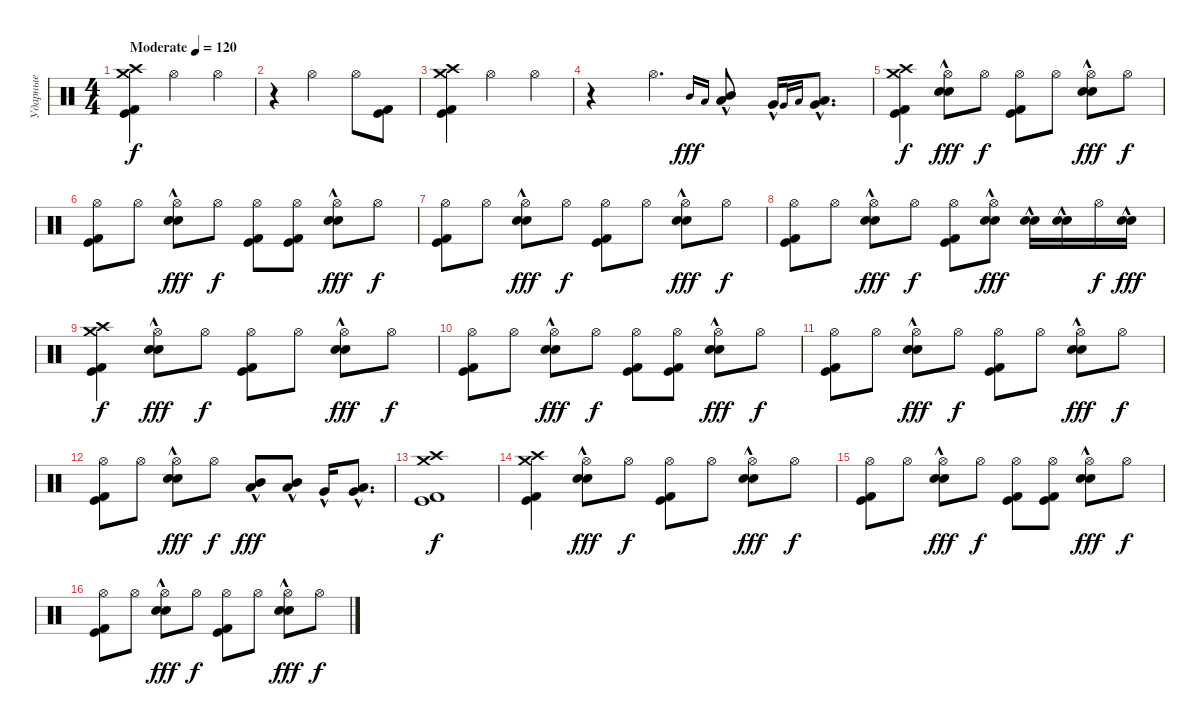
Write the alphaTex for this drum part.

\track ("Ударные" "Ударные") {instrument percussion}
\staff {score}
\articulation defaults
\ts (4 4)
\tempo (120 "Moderate")
\clef neutral
\ks c
("Crash high (hit)" "Kick (hit)" "Kick (hit) 2" "Crash medium (hit)").4{dy f} "Hi-Hat (open)".2 "Hi-Hat (open)".4 |
r.4 "Hi-Hat (open)".2 "Hi-Hat (open)".8 ("Kick (hit)" "Kick (hit) 2").8 |
("Crash high (hit)" "Kick (hit)" "Kick (hit) 2" "Crash medium (hit)").4 "Hi-Hat (open)".2 "Hi-Hat (open)".4 |
r.4 "Hi-Hat (open)".4{d} "Mid Tom (hit)".16{gr onbeat dy fff} "Low Tom (hit)".16{gr onbeat} ("Mid Tom (hit)"{hac} "Low Tom (hit)"{hac}).8 "Very Low Tom (hit)"{hac}.16 "Very Low Tom (hit)".16{gr onbeat} "Low Floor Tom (hit)".16{gr onbeat} ("Very Low Tom (hit)"{hac} "Low Floor Tom (hit)"{hac}).8{d} |
("Crash high (hit)" "Kick (hit)" "Kick (hit) 2" "Crash medium (hit)").4{dy f} ("Hi-Hat (open)" "Snare (hit) 2"{hac} "Electric Snare (hit)"{hac}).8{dy fff} "Hi-Hat (open)".8{dy f} ("Hi-Hat (open)" "Kick (hit)" "Kick (hit) 2").8 "Hi-Hat (open)".8 ("Hi-Hat (open)" "Snare (hit) 2"{hac} "Electric Snare (hit)"{hac}).8{dy fff} "Hi-Hat (open)".8{dy f} |
("Hi-Hat (open)" "Kick (hit)" "Kick (hit) 2").8 "Hi-Hat (open)".8 ("Hi-Hat (open)" "Snare (hit) 2"{hac} "Electric Snare (hit)"{hac}).8{dy fff} "Hi-Hat (open)".8{dy f} ("Hi-Hat (open)" "Kick (hit)" "Kick (hit) 2").8 ("Hi-Hat (open)" "Kick (hit)" "Kick (hit) 2").8 ("Hi-Hat (open)" "Snare (hit) 2"{hac} "Electric Snare (hit)"{hac}).8{dy fff} "Hi-Hat (open)".8{dy f} |
("Hi-Hat (open)" "Kick (hit)" "Kick (hit) 2").8 "Hi-Hat (open)".8 ("Hi-Hat (open)" "Snare (hit) 2"{hac} "Electric Snare (hit)"{hac}).8{dy fff} "Hi-Hat (open)".8{dy f} ("Hi-Hat (open)" "Kick (hit)" "Kick (hit) 2").8 "Hi-Hat (open)".8 ("Hi-Hat (open)" "Snare (hit) 2"{hac} "Electric Snare (hit)"{hac}).8{dy fff} "Hi-Hat (open)".8{dy f} |
("Hi-Hat (open)" "Kick (hit)" "Kick (hit) 2").8 "Hi-Hat (open)".8 ("Hi-Hat (open)" "Snare (hit) 2"{hac} "Electric Snare (hit)"{hac}).8{dy fff} "Hi-Hat (open)".8{dy f} ("Hi-Hat (open)" "Kick (hit)" "Kick (hit) 2").8 ("Hi-Hat (open)" "Snare (hit) 2"{hac} "Electric Snare (hit)"{hac}).8{dy fff} ("Snare (hit) 2"{hac} "Electric Snare (hit)"{hac}).16 ("Snare (hit) 2"{hac} "Electric Snare (hit)"{hac}).16 "Hi-Hat (open)".16{dy f} ("Snare (hit) 2"{hac} "Electric Snare (hit)"{hac}).16{dy fff} |
("Crash high (hit)" "Kick (hit)" "Kick (hit) 2" "Crash medium (hit)").4{dy f} ("Hi-Hat (open)" "Snare (hit) 2"{hac} "Electric Snare (hit)"{hac}).8{dy fff} "Hi-Hat (open)".8{dy f} ("Hi-Hat (open)" "Kick (hit)" "Kick (hit) 2").8 "Hi-Hat (open)".8 ("Hi-Hat (open)" "Snare (hit) 2"{hac} "Electric Snare (hit)"{hac}).8{dy fff} "Hi-Hat (open)".8{dy f} |
("Hi-Hat (open)" "Kick (hit)" "Kick (hit) 2").8 "Hi-Hat (open)".8 ("Hi-Hat (open)" "Snare (hit) 2"{hac} "Electric Snare (hit)"{hac}).8{dy fff} "Hi-Hat (open)".8{dy f} ("Hi-Hat (open)" "Kick (hit)" "Kick (hit) 2").8 ("Hi-Hat (open)" "Kick (hit)" "Kick (hit) 2").8 ("Hi-Hat (open)" "Snare (hit) 2"{hac} "Electric Snare (hit)"{hac}).8{dy fff} "Hi-Hat (open)".8{dy f} |
("Hi-Hat (open)" "Kick (hit)" "Kick (hit) 2").8 "Hi-Hat (open)".8 ("Hi-Hat (open)" "Snare (hit) 2"{hac} "Electric Snare (hit)"{hac}).8{dy fff} "Hi-Hat (open)".8{dy f} ("Hi-Hat (open)" "Kick (hit)" "Kick (hit) 2").8 "Hi-Hat (open)".8 ("Hi-Hat (open)" "Snare (hit) 2"{hac} "Electric Snare (hit)"{hac}).8{dy fff} "Hi-Hat (open)".8{dy f} |
("Hi-Hat (open)" "Kick (hit)" "Kick (hit) 2").8 "Hi-Hat (open)".8 ("Hi-Hat (open)" "Snare (hit) 2"{hac} "Electric Snare (hit)"{hac}).8{dy fff} "Hi-Hat (open)".8{dy f} ("Low Tom (hit)"{hac} "Mid Tom (hit)"{hac}).8{dy fff} ("Low Tom (hit)"{hac} "Mid Tom (hit)"{hac}).8 "Very Low Tom (hit)"{hac}.16 ("Low Floor Tom (hit)"{hac} "Very Low Tom (hit)"{hac}).8{d} |
("Crash high (hit)" "Kick (hit)" "Kick (hit) 2" "Crash medium (hit)").1{dy f} |
("Crash high (hit)" "Kick (hit)" "Kick (hit) 2" "Crash medium (hit)").4 ("Hi-Hat (open)" "Snare (hit) 2"{hac} "Electric Snare (hit)"{hac}).8{dy fff} "Hi-Hat (open)".8{dy f} ("Hi-Hat (open)" "Kick (hit)" "Kick (hit) 2").8 "Hi-Hat (open)".8 ("Hi-Hat (open)" "Snare (hit) 2"{hac} "Electric Snare (hit)"{hac}).8{dy fff} "Hi-Hat (open)".8{dy f} |
("Hi-Hat (open)" "Kick (hit)" "Kick (hit) 2").8 "Hi-Hat (open)".8 ("Hi-Hat (open)" "Snare (hit) 2"{hac} "Electric Snare (hit)"{hac}).8{dy fff} "Hi-Hat (open)".8{dy f} ("Hi-Hat (open)" "Kick (hit)" "Kick (hit) 2").8 ("Hi-Hat (open)" "Kick (hit)" "Kick (hit) 2").8 ("Hi-Hat (open)" "Snare (hit) 2"{hac} "Electric Snare (hit)"{hac}).8{dy fff} "Hi-Hat (open)".8{dy f} |
("Hi-Hat (open)" "Kick (hit)" "Kick (hit) 2").8 "Hi-Hat (open)".8 ("Hi-Hat (open)" "Snare (hit) 2"{hac} "Electric Snare (hit)"{hac}).8{dy fff} "Hi-Hat (open)".8{dy f} ("Hi-Hat (open)" "Kick (hit)" "Kick (hit) 2").8 "Hi-Hat (open)".8 ("Hi-Hat (open)" "Snare (hit) 2"{hac} "Electric Snare (hit)"{hac}).8{dy fff} "Hi-Hat (open)".8{dy f}
